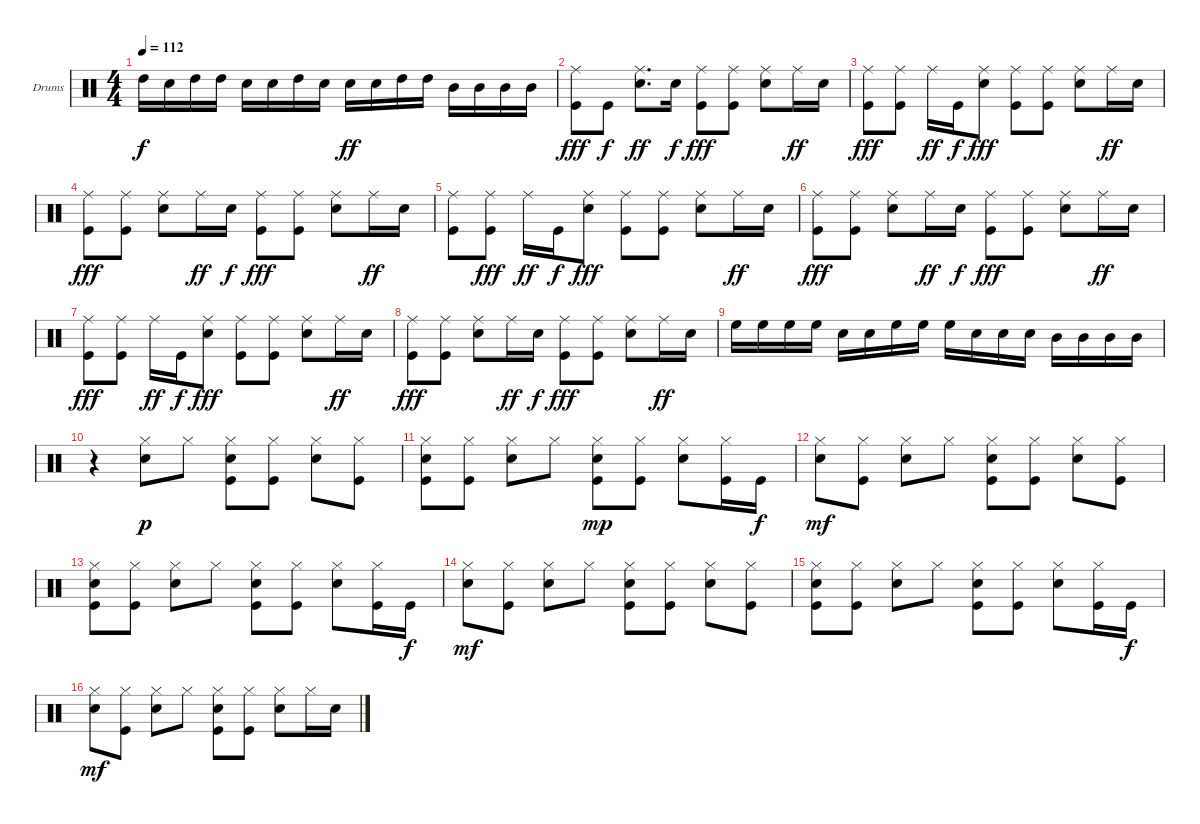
\bracketExtendMode groupsimilarinstruments
\firstSystemTrackNameOrientation horizontal
\otherSystemsTrackNameOrientation horizontal
\track ("Drumkit" "Drums") {instrument percussion}
\staff {score}
\articulation defaults
\ts (4 4)
\tempo 112
\clef neutral
\ks c "High Tom (hit)".16{dy f} "Snare (hit) 2".16 "High Tom (hit)".16 "High Tom (hit)".16 "Snare (hit) 2".16 "Snare (hit) 2".16 "High Tom (hit)".16 "Snare (hit) 2".16 "Snare (hit) 2".16{dy ff} "Snare (hit) 2".16 "High Tom (hit)".16 "High Tom (hit)".16 "Mid Tom (hit)".16 "Mid Tom (hit)".16 "Mid Tom (hit)".16 "Mid Tom (hit)".16
|
("Ride (middle)" "Kick (hit)").8{dy fff} "Kick (hit)".8{dy f} ("Ride (middle)" "Snare (hit) 2").8{d dy ff} "Snare (hit) 2".16{dy f} ("Ride (middle)" "Kick (hit)").8{dy fff} ("Ride (middle)" "Kick (hit)").8 ("Ride (middle)" "Snare (hit) 2").8 "Ride (middle)".16{dy ff} "Snare (hit) 2".16 |
("Ride (middle)" "Kick (hit)").8{dy fff} ("Ride (middle)" "Kick (hit)").8 "Ride (middle)".16{dy ff} "Kick (hit)".16{dy f} ("Ride (middle)" "Snare (hit) 2").8{dy fff} ("Ride (middle)" "Kick (hit)").8 ("Ride (middle)" "Kick (hit)").8 ("Ride (middle)" "Snare (hit) 2").8 "Ride (middle)".16{dy ff} "Snare (hit) 2".16 |
("Ride (middle)" "Kick (hit)").8{dy fff} ("Ride (middle)" "Kick (hit)").8 ("Ride (middle)" "Snare (hit) 2").8 "Ride (middle)".16{dy ff} "Snare (hit) 2".16{dy f} ("Ride (middle)" "Kick (hit)").8{dy fff} ("Ride (middle)" "Kick (hit)").8 ("Ride (middle)" "Snare (hit) 2").8 "Ride (middle)".16{dy ff} "Snare (hit) 2".16 |
("Ride (middle)" "Kick (hit)").8 ("Ride (middle)" "Kick (hit)").8{dy fff} "Ride (middle)".16{dy ff} "Kick (hit)".16{dy f} ("Ride (middle)" "Snare (hit) 2").8{dy fff} ("Ride (middle)" "Kick (hit)").8 ("Ride (middle)" "Kick (hit)").8 ("Ride (middle)" "Snare (hit) 2").8 "Ride (middle)".16{dy ff} "Snare (hit) 2".16 |
("Ride (middle)" "Kick (hit)").8{dy fff} ("Ride (middle)" "Kick (hit)").8 ("Ride (middle)" "Snare (hit) 2").8 "Ride (middle)".16{dy ff} "Snare (hit) 2".16{dy f} ("Ride (middle)" "Kick (hit)").8{dy fff} ("Ride (middle)" "Kick (hit)").8 ("Ride (middle)" "Snare (hit) 2").8 "Ride (middle)".16{dy ff} "Snare (hit) 2".16 |
("Ride (middle)" "Kick (hit)").8{dy fff} ("Ride (middle)" "Kick (hit)").8 "Ride (middle)".16{dy ff} "Kick (hit)".16{dy f} ("Ride (middle)" "Snare (hit) 2").8{dy fff} ("Ride (middle)" "Kick (hit)").8 ("Ride (middle)" "Kick (hit)").8 ("Ride (middle)" "Snare (hit) 2").8 "Ride (middle)".16{dy ff} "Snare (hit) 2".16 |
("Ride (middle)" "Kick (hit)").8{dy fff} ("Ride (middle)" "Kick (hit)").8 ("Ride (middle)" "Snare (hit) 2").8 "Ride (middle)".16{dy ff} "Snare (hit) 2".16{dy f} ("Ride (middle)" "Kick (hit)").8{dy fff} ("Ride (middle)" "Kick (hit)").8 ("Ride (middle)" "Snare (hit) 2").8 "Ride (middle)".16{dy ff} "Snare (hit) 2".16 |
"High Floor Tom (hit)".16 "High Floor Tom (hit)".16 "High Floor Tom (hit)".16 "High Floor Tom (hit)".16 "Snare (hit) 2".16 "Snare (hit) 2".16 "High Floor Tom (hit)".16 "High Floor Tom (hit)".16 "High Floor Tom (hit)".16 "Snare (hit) 2".16 "Snare (hit) 2".16 "Snare (hit) 2".16 "Mid Tom (hit)".16 "Mid Tom (hit)".16 "Mid Tom (hit)".16 "Mid Tom (hit)".16 |
r.4 ("Hi-Hat (closed)" "Snare (hit) 2").8{dy p} "Hi-Hat (closed)".8 ("Hi-Hat (closed)" "Snare (hit) 2" "Kick (hit)").8 ("Hi-Hat (closed)" "Kick (hit)").8 ("Hi-Hat (closed)" "Snare (hit) 2").8 ("Hi-Hat (closed)" "Kick (hit)").8 |
("Hi-Hat (closed)" "Snare (hit) 2" "Kick (hit)").8 ("Hi-Hat (closed)" "Kick (hit)").8 ("Hi-Hat (closed)" "Snare (hit) 2").8 "Hi-Hat (closed)".8 ("Hi-Hat (closed)" "Snare (hit) 2" "Kick (hit)").8{dy mp} ("Hi-Hat (closed)" "Kick (hit)").8 ("Hi-Hat (closed)" "Snare (hit) 2").8 ("Hi-Hat (closed)" "Kick (hit)").16 "Kick (hit)".16{dy f} |
("Hi-Hat (closed)" "Snare (hit) 2").8{dy mf} ("Hi-Hat (closed)" "Kick (hit)").8 ("Hi-Hat (closed)" "Snare (hit) 2").8 "Hi-Hat (closed)".8 ("Hi-Hat (closed)" "Snare (hit) 2" "Kick (hit)").8 ("Hi-Hat (closed)" "Kick (hit)").8 ("Hi-Hat (closed)" "Snare (hit) 2").8 ("Hi-Hat (closed)" "Kick (hit)").8 |
("Hi-Hat (closed)" "Snare (hit) 2" "Kick (hit)").8 ("Hi-Hat (closed)" "Kick (hit)").8 ("Hi-Hat (closed)" "Snare (hit) 2").8 "Hi-Hat (closed)".8 ("Hi-Hat (closed)" "Snare (hit) 2" "Kick (hit)").8 ("Hi-Hat (closed)" "Kick (hit)").8 ("Hi-Hat (closed)" "Snare (hit) 2").8 ("Hi-Hat (closed)" "Kick (hit)").16 "Kick (hit)".16{dy f} |
("Hi-Hat (closed)" "Snare (hit) 2").8{dy mf} ("Hi-Hat (closed)" "Kick (hit)").8 ("Hi-Hat (closed)" "Snare (hit) 2").8 "Hi-Hat (closed)".8 ("Hi-Hat (closed)" "Snare (hit) 2" "Kick (hit)").8 ("Hi-Hat (closed)" "Kick (hit)").8 ("Hi-Hat (closed)" "Snare (hit) 2").8 ("Hi-Hat (closed)" "Kick (hit)").8 |
("Hi-Hat (closed)" "Snare (hit) 2" "Kick (hit)").8 ("Hi-Hat (closed)" "Kick (hit)").8 ("Hi-Hat (closed)" "Snare (hit) 2").8 "Hi-Hat (closed)".8 ("Hi-Hat (closed)" "Snare (hit) 2" "Kick (hit)").8 ("Hi-Hat (closed)" "Kick (hit)").8 ("Hi-Hat (closed)" "Snare (hit) 2").8 ("Hi-Hat (closed)" "Kick (hit)").16 "Kick (hit)".16{dy f} |
("Hi-Hat (closed)" "Snare (hit) 2").8{dy mf} ("Hi-Hat (closed)" "Kick (hit)").8 ("Hi-Hat (closed)" "Snare (hit) 2").8 "Hi-Hat (closed)".8 ("Hi-Hat (closed)" "Snare (hit) 2" "Kick (hit)").8 ("Hi-Hat (closed)" "Kick (hit)").8 ("Hi-Hat (closed)" "Snare (hit) 2").8 "Hi-Hat (closed)".16 "Snare (hit) 2".16
